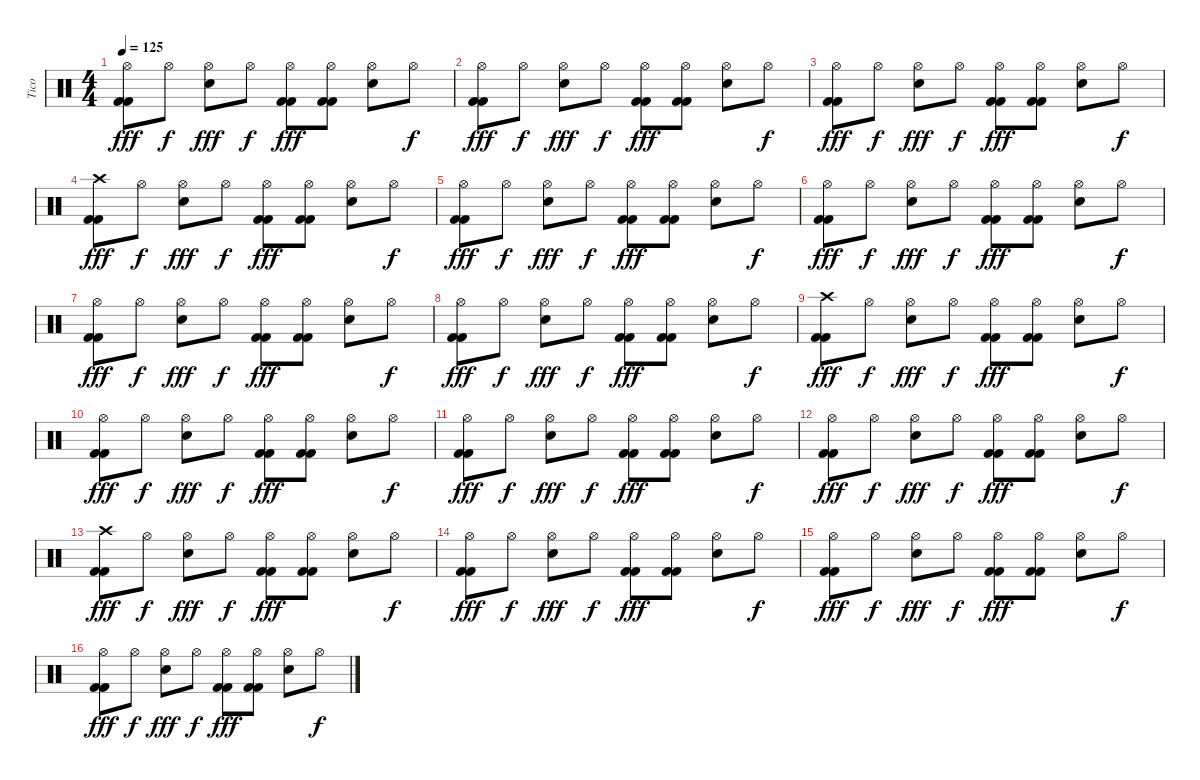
\track ("Tico" "Tico") {instrument percussion}
\staff {score}
\articulation defaults
\ts (4 4)
\tempo 125
\clef neutral
\ks c
("Hi-Hat (open)" "Kick (hit) 2" "Kick (hit) 2").8{dy fff} "Hi-Hat (open)".8{dy f} ("Hi-Hat (open)" "Snare (hit) 2").8{dy fff} "Hi-Hat (open)".8{dy f} ("Hi-Hat (open)" "Kick (hit) 2" "Kick (hit) 2").8{dy fff} ("Hi-Hat (open)" "Kick (hit) 2" "Kick (hit) 2").8 ("Hi-Hat (open)" "Snare (hit) 2").8 "Hi-Hat (open)".8{dy f} |
("Hi-Hat (open)" "Kick (hit) 2" "Kick (hit) 2").8{dy fff} "Hi-Hat (open)".8{dy f} ("Hi-Hat (open)" "Snare (hit) 2").8{dy fff} "Hi-Hat (open)".8{dy f} ("Hi-Hat (open)" "Kick (hit) 2" "Kick (hit) 2").8{dy fff} ("Hi-Hat (open)" "Kick (hit) 2" "Kick (hit) 2").8 ("Hi-Hat (open)" "Snare (hit) 2").8 "Hi-Hat (open)".8{dy f} |
("Hi-Hat (open)" "Kick (hit) 2" "Kick (hit) 2").8{dy fff} "Hi-Hat (open)".8{dy f} ("Hi-Hat (open)" "Snare (hit) 2").8{dy fff} "Hi-Hat (open)".8{dy f} ("Hi-Hat (open)" "Kick (hit) 2" "Kick (hit) 2").8{dy fff} ("Hi-Hat (open)" "Kick (hit) 2" "Kick (hit) 2").8 ("Hi-Hat (open)" "Snare (hit) 2").8 "Hi-Hat (open)".8{dy f} |
("Crash high (hit)" "Kick (hit) 2" "Kick (hit) 2").8{dy fff} "Hi-Hat (open)".8{dy f} ("Hi-Hat (open)" "Snare (hit) 2").8{dy fff} "Hi-Hat (open)".8{dy f} ("Hi-Hat (open)" "Kick (hit) 2" "Kick (hit) 2").8{dy fff} ("Hi-Hat (open)" "Kick (hit) 2" "Kick (hit) 2").8 ("Hi-Hat (open)" "Snare (hit) 2").8 "Hi-Hat (open)".8{dy f} |
("Hi-Hat (open)" "Kick (hit) 2" "Kick (hit) 2").8{dy fff} "Hi-Hat (open)".8{dy f} ("Hi-Hat (open)" "Snare (hit) 2").8{dy fff} "Hi-Hat (open)".8{dy f} ("Hi-Hat (open)" "Kick (hit) 2" "Kick (hit) 2").8{dy fff} ("Hi-Hat (open)" "Kick (hit) 2" "Kick (hit) 2").8 ("Hi-Hat (open)" "Snare (hit) 2").8 "Hi-Hat (open)".8{dy f} |
("Hi-Hat (open)" "Kick (hit) 2" "Kick (hit) 2").8{dy fff} "Hi-Hat (open)".8{dy f} ("Hi-Hat (open)" "Snare (hit) 2").8{dy fff} "Hi-Hat (open)".8{dy f} ("Hi-Hat (open)" "Kick (hit) 2" "Kick (hit) 2").8{dy fff} ("Hi-Hat (open)" "Kick (hit) 2" "Kick (hit) 2").8 ("Hi-Hat (open)" "Snare (hit) 2").8 "Hi-Hat (open)".8{dy f} |
("Hi-Hat (open)" "Kick (hit) 2" "Kick (hit) 2").8{dy fff} "Hi-Hat (open)".8{dy f} ("Hi-Hat (open)" "Snare (hit) 2").8{dy fff} "Hi-Hat (open)".8{dy f} ("Hi-Hat (open)" "Kick (hit) 2" "Kick (hit) 2").8{dy fff} ("Hi-Hat (open)" "Kick (hit) 2" "Kick (hit) 2").8 ("Hi-Hat (open)" "Snare (hit) 2").8 "Hi-Hat (open)".8{dy f} |
("Hi-Hat (open)" "Kick (hit) 2" "Kick (hit) 2").8{dy fff} "Hi-Hat (open)".8{dy f} ("Hi-Hat (open)" "Snare (hit) 2").8{dy fff} "Hi-Hat (open)".8{dy f} ("Hi-Hat (open)" "Kick (hit) 2" "Kick (hit) 2").8{dy fff} ("Hi-Hat (open)" "Kick (hit) 2" "Kick (hit) 2").8 ("Hi-Hat (open)" "Snare (hit) 2").8 "Hi-Hat (open)".8{dy f} |
("Crash high (hit)" "Kick (hit) 2" "Kick (hit) 2").8{dy fff} "Hi-Hat (open)".8{dy f} ("Hi-Hat (open)" "Snare (hit) 2").8{dy fff} "Hi-Hat (open)".8{dy f} ("Hi-Hat (open)" "Kick (hit) 2" "Kick (hit) 2").8{dy fff} ("Hi-Hat (open)" "Kick (hit) 2" "Kick (hit) 2").8 ("Hi-Hat (open)" "Snare (hit) 2").8 "Hi-Hat (open)".8{dy f} |
("Hi-Hat (open)" "Kick (hit) 2" "Kick (hit) 2").8{dy fff} "Hi-Hat (open)".8{dy f} ("Hi-Hat (open)" "Snare (hit) 2").8{dy fff} "Hi-Hat (open)".8{dy f} ("Hi-Hat (open)" "Kick (hit) 2" "Kick (hit) 2").8{dy fff} ("Hi-Hat (open)" "Kick (hit) 2" "Kick (hit) 2").8 ("Hi-Hat (open)" "Snare (hit) 2").8 "Hi-Hat (open)".8{dy f} |
("Hi-Hat (open)" "Kick (hit) 2" "Kick (hit) 2").8{dy fff} "Hi-Hat (open)".8{dy f} ("Hi-Hat (open)" "Snare (hit) 2").8{dy fff} "Hi-Hat (open)".8{dy f} ("Hi-Hat (open)" "Kick (hit) 2" "Kick (hit) 2").8{dy fff} ("Hi-Hat (open)" "Kick (hit) 2" "Kick (hit) 2").8 ("Hi-Hat (open)" "Snare (hit) 2").8 "Hi-Hat (open)".8{dy f} |
("Hi-Hat (open)" "Kick (hit) 2" "Kick (hit) 2").8{dy fff} "Hi-Hat (open)".8{dy f} ("Hi-Hat (open)" "Snare (hit) 2").8{dy fff} "Hi-Hat (open)".8{dy f} ("Hi-Hat (open)" "Kick (hit) 2" "Kick (hit) 2").8{dy fff} ("Hi-Hat (open)" "Kick (hit) 2" "Kick (hit) 2").8 ("Hi-Hat (open)" "Snare (hit) 2").8 "Hi-Hat (open)".8{dy f} |
("Crash high (hit)" "Kick (hit) 2" "Kick (hit) 2").8{dy fff} "Hi-Hat (open)".8{dy f} ("Hi-Hat (open)" "Snare (hit) 2").8{dy fff} "Hi-Hat (open)".8{dy f} ("Hi-Hat (open)" "Kick (hit) 2" "Kick (hit) 2").8{dy fff} ("Hi-Hat (open)" "Kick (hit) 2" "Kick (hit) 2").8 ("Hi-Hat (open)" "Snare (hit) 2").8 "Hi-Hat (open)".8{dy f} |
("Hi-Hat (open)" "Kick (hit) 2" "Kick (hit) 2").8{dy fff} "Hi-Hat (open)".8{dy f} ("Hi-Hat (open)" "Snare (hit) 2").8{dy fff} "Hi-Hat (open)".8{dy f} ("Hi-Hat (open)" "Kick (hit) 2" "Kick (hit) 2").8{dy fff} ("Hi-Hat (open)" "Kick (hit) 2" "Kick (hit) 2").8 ("Hi-Hat (open)" "Snare (hit) 2").8 "Hi-Hat (open)".8{dy f} |
("Hi-Hat (open)" "Kick (hit) 2" "Kick (hit) 2").8{dy fff} "Hi-Hat (open)".8{dy f} ("Hi-Hat (open)" "Snare (hit) 2").8{dy fff} "Hi-Hat (open)".8{dy f} ("Hi-Hat (open)" "Kick (hit) 2" "Kick (hit) 2").8{dy fff} ("Hi-Hat (open)" "Kick (hit) 2" "Kick (hit) 2").8 ("Hi-Hat (open)" "Snare (hit) 2").8 "Hi-Hat (open)".8{dy f} |
("Hi-Hat (open)" "Kick (hit) 2" "Kick (hit) 2").8{dy fff} "Hi-Hat (open)".8{dy f} ("Hi-Hat (open)" "Snare (hit) 2").8{dy fff} "Hi-Hat (open)".8{dy f} ("Hi-Hat (open)" "Kick (hit) 2" "Kick (hit) 2").8{dy fff} ("Hi-Hat (open)" "Kick (hit) 2" "Kick (hit) 2").8 ("Hi-Hat (open)" "Snare (hit) 2").8 "Hi-Hat (open)".8{dy f}
